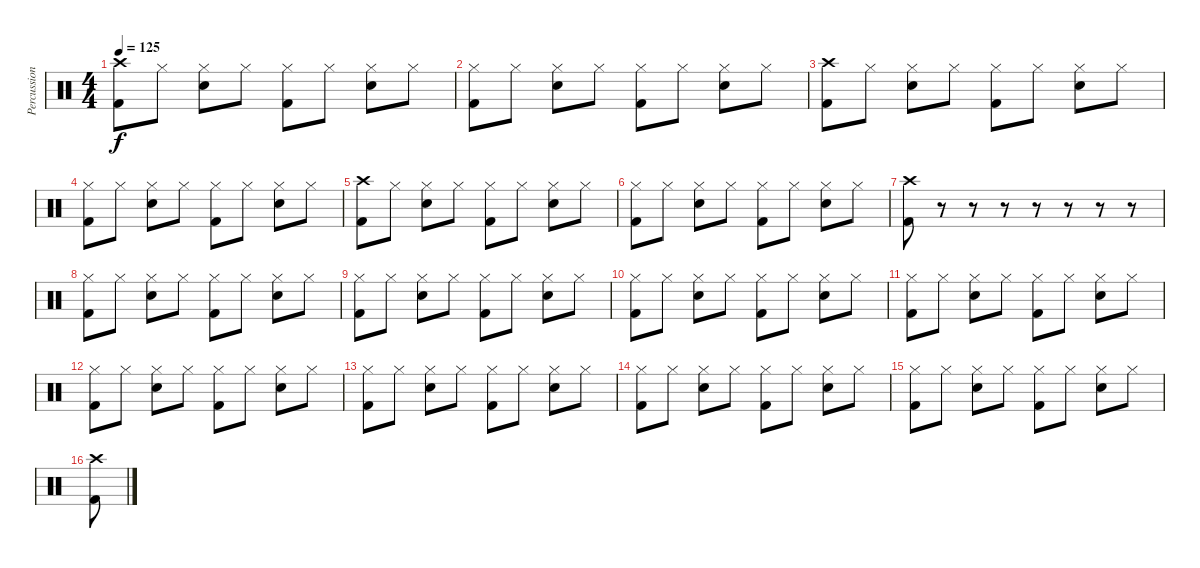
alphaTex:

\track ("Percussion" "Percussion") {instrument percussion}
\staff {score}
\articulation defaults
\ts (4 4)
\tempo 125
\clef neutral
\ks c
("Crash high (hit)" "Kick (hit) 2").8{dy f} "Hi-Hat (closed)".8 ("Hi-Hat (closed)" "Snare (hit) 2").8 "Hi-Hat (closed)".8 ("Hi-Hat (closed)" "Kick (hit) 2").8 "Hi-Hat (closed)".8 ("Hi-Hat (closed)" "Snare (hit) 2").8 "Hi-Hat (closed)".8 |
("Hi-Hat (closed)" "Kick (hit) 2").8 "Hi-Hat (closed)".8 ("Hi-Hat (closed)" "Snare (hit) 2").8 "Hi-Hat (closed)".8 ("Hi-Hat (closed)" "Kick (hit) 2").8 "Hi-Hat (closed)".8 ("Hi-Hat (closed)" "Snare (hit) 2").8 "Hi-Hat (closed)".8 |
("Crash high (hit)" "Kick (hit) 2").8 "Hi-Hat (closed)".8 ("Hi-Hat (closed)" "Snare (hit) 2").8 "Hi-Hat (closed)".8 ("Hi-Hat (closed)" "Kick (hit) 2").8 "Hi-Hat (closed)".8 ("Hi-Hat (closed)" "Snare (hit) 2").8 "Hi-Hat (closed)".8 |
("Hi-Hat (closed)" "Kick (hit) 2").8 "Hi-Hat (closed)".8 ("Hi-Hat (closed)" "Snare (hit) 2").8 "Hi-Hat (closed)".8 ("Hi-Hat (closed)" "Kick (hit) 2").8 "Hi-Hat (closed)".8 ("Hi-Hat (closed)" "Snare (hit) 2").8 "Hi-Hat (closed)".8 |
("Crash high (hit)" "Kick (hit) 2").8 "Hi-Hat (closed)".8 ("Hi-Hat (closed)" "Snare (hit) 2").8 "Hi-Hat (closed)".8 ("Hi-Hat (closed)" "Kick (hit) 2").8 "Hi-Hat (closed)".8 ("Hi-Hat (closed)" "Snare (hit) 2").8 "Hi-Hat (closed)".8 |
("Hi-Hat (closed)" "Kick (hit) 2").8 "Hi-Hat (closed)".8 ("Hi-Hat (closed)" "Snare (hit) 2").8 "Hi-Hat (closed)".8 ("Hi-Hat (closed)" "Kick (hit) 2").8 "Hi-Hat (closed)".8 ("Hi-Hat (closed)" "Snare (hit) 2").8 "Hi-Hat (closed)".8 |
("Crash high (hit)" "Kick (hit) 2").8 r.8 r.8 r.8 r.8 r.8 r.8 r.8 |
("Hi-Hat (closed)" "Kick (hit) 2").8 "Hi-Hat (closed)".8 ("Hi-Hat (closed)" "Snare (hit) 2").8 "Hi-Hat (closed)".8 ("Hi-Hat (closed)" "Kick (hit) 2").8 "Hi-Hat (closed)".8 ("Hi-Hat (closed)" "Snare (hit) 2").8 "Hi-Hat (closed)".8 |
("Hi-Hat (closed)" "Kick (hit) 2").8 "Hi-Hat (closed)".8 ("Hi-Hat (closed)" "Snare (hit) 2").8 "Hi-Hat (closed)".8 ("Hi-Hat (closed)" "Kick (hit) 2").8 "Hi-Hat (closed)".8 ("Hi-Hat (closed)" "Snare (hit) 2").8 "Hi-Hat (closed)".8 |
("Hi-Hat (closed)" "Kick (hit) 2").8 "Hi-Hat (closed)".8 ("Hi-Hat (closed)" "Snare (hit) 2").8 "Hi-Hat (closed)".8 ("Hi-Hat (closed)" "Kick (hit) 2").8 "Hi-Hat (closed)".8 ("Hi-Hat (closed)" "Snare (hit) 2").8 "Hi-Hat (closed)".8 |
("Hi-Hat (closed)" "Kick (hit) 2").8 "Hi-Hat (closed)".8 ("Hi-Hat (closed)" "Snare (hit) 2").8 "Hi-Hat (closed)".8 ("Hi-Hat (closed)" "Kick (hit) 2").8 "Hi-Hat (closed)".8 ("Hi-Hat (closed)" "Snare (hit) 2").8 "Hi-Hat (closed)".8 |
("Hi-Hat (closed)" "Kick (hit) 2").8 "Hi-Hat (closed)".8 ("Hi-Hat (closed)" "Snare (hit) 2").8 "Hi-Hat (closed)".8 ("Hi-Hat (closed)" "Kick (hit) 2").8 "Hi-Hat (closed)".8 ("Hi-Hat (closed)" "Snare (hit) 2").8 "Hi-Hat (closed)".8 |
("Hi-Hat (closed)" "Kick (hit) 2").8 "Hi-Hat (closed)".8 ("Hi-Hat (closed)" "Snare (hit) 2").8 "Hi-Hat (closed)".8 ("Hi-Hat (closed)" "Kick (hit) 2").8 "Hi-Hat (closed)".8 ("Hi-Hat (closed)" "Snare (hit) 2").8 "Hi-Hat (closed)".8 |
("Hi-Hat (closed)" "Kick (hit) 2").8 "Hi-Hat (closed)".8 ("Hi-Hat (closed)" "Snare (hit) 2").8 "Hi-Hat (closed)".8 ("Hi-Hat (closed)" "Kick (hit) 2").8 "Hi-Hat (closed)".8 ("Hi-Hat (closed)" "Snare (hit) 2").8 "Hi-Hat (closed)".8 |
("Hi-Hat (closed)" "Kick (hit) 2").8 "Hi-Hat (closed)".8 ("Hi-Hat (closed)" "Snare (hit) 2").8 "Hi-Hat (closed)".8 ("Hi-Hat (closed)" "Kick (hit) 2").8 "Hi-Hat (closed)".8 ("Hi-Hat (closed)" "Snare (hit) 2").8 "Hi-Hat (closed)".8 |
("Crash high (hit)" "Kick (hit) 2").8
